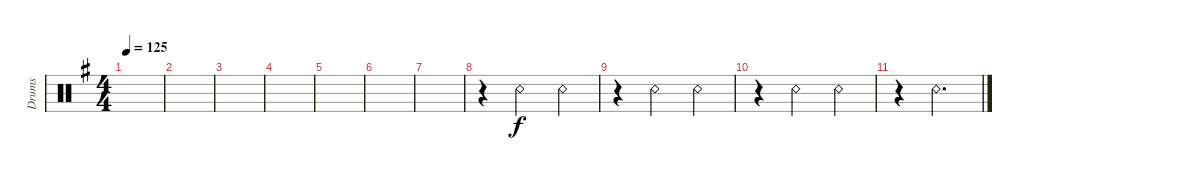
\defaultSystemsLayout 4
\bracketExtendMode groupsimilarinstruments
\otherSystemsTrackNameOrientation horizontal
\track ("Drumkit" "Drums") {instrument percussion}
\staff {score}
\articulation defaults
\ts (4 4)
\tempo 125
\clef neutral
\scale
0.333333
\ks g
|
\scale
0.333333 |
\scale
0.333333 |
\scale
0.333333 |
\scale
0.333333 |
\scale
0.333333 |
\scale
0.333333 |
\scale
0.333333 r.4{beam Down} "Snare (rim shot)"{acc forcenatural}.2{beam Down} "Snare (rim shot)"{acc forcenatural}.4{beam Down} |
\scale
0.333333 r.4{beam Down} "Snare (rim shot)"{acc forcenatural}.2{beam Down} "Snare (rim shot)"{acc forcenatural}.4{beam Down} |
\scale
0.333333 r.4{beam Down} "Snare (rim shot)"{acc forcenatural}.2{beam Down} "Snare (rim shot)"{acc forcenatural}.4{beam Down} |
\scale
0.333333 r.4{beam Down} "Snare (rim shot)"{acc forcenatural}.2{d beam Down} |
\scale
0.333333 |
\scale
0.333333 |
\scale
0.333333 |
\scale
0.333333 |
\scale
0.333333
